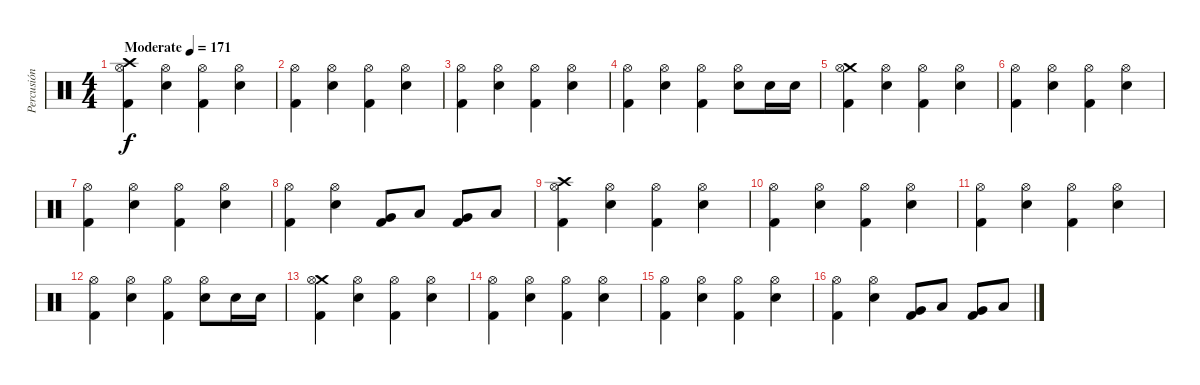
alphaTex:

\track ("Percusión" "Percusión") {instrument percussion}
\staff {score}
\articulation defaults
\ts (4 4)
\tempo (171 "Moderate")
\clef neutral
\ks c
("Crash high (hit)" "Hi-Hat (open)" "Kick (hit) 2").4{dy f} ("Hi-Hat (open)" "Electric Snare (hit)").4 ("Hi-Hat (open)" "Kick (hit) 2").4 ("Hi-Hat (open)" "Electric Snare (hit)").4 |
("Hi-Hat (open)" "Kick (hit) 2").4 ("Hi-Hat (open)" "Electric Snare (hit)").4 ("Hi-Hat (open)" "Kick (hit) 2").4 ("Hi-Hat (open)" "Electric Snare (hit)").4 |
("Hi-Hat (open)" "Kick (hit) 2").4 ("Hi-Hat (open)" "Electric Snare (hit)").4 ("Hi-Hat (open)" "Kick (hit) 2").4 ("Hi-Hat (open)" "Electric Snare (hit)").4 |
("Hi-Hat (open)" "Kick (hit) 2").4 ("Hi-Hat (open)" "Electric Snare (hit)").4 ("Hi-Hat (open)" "Kick (hit) 2").4 ("Hi-Hat (open)" "Electric Snare (hit)").8 "Electric Snare (hit)".16 "Electric Snare (hit)".16 |
("Crash medium (hit)" "Hi-Hat (open)" "Kick (hit) 2").4 ("Hi-Hat (open)" "Electric Snare (hit)").4 ("Hi-Hat (open)" "Kick (hit) 2").4 ("Hi-Hat (open)" "Electric Snare (hit)").4 |
("Hi-Hat (open)" "Kick (hit) 2").4 ("Hi-Hat (open)" "Electric Snare (hit)").4 ("Hi-Hat (open)" "Kick (hit) 2").4 ("Hi-Hat (open)" "Electric Snare (hit)").4 |
("Hi-Hat (open)" "Kick (hit) 2").4 ("Hi-Hat (open)" "Electric Snare (hit)").4 ("Hi-Hat (open)" "Kick (hit) 2").4 ("Hi-Hat (open)" "Electric Snare (hit)").4 |
("Hi-Hat (open)" "Kick (hit) 2").4 ("Hi-Hat (open)" "Electric Snare (hit)").4 ("Very Low Tom (hit)" "Kick (hit) 2").8 "Low Tom (hit)".8 ("Very Low Tom (hit)" "Kick (hit) 2").8 "Low Tom (hit)".8 |
("Crash high (hit)" "Hi-Hat (open)" "Kick (hit) 2").4 ("Hi-Hat (open)" "Electric Snare (hit)").4 ("Hi-Hat (open)" "Kick (hit) 2").4 ("Hi-Hat (open)" "Electric Snare (hit)").4 |
("Hi-Hat (open)" "Kick (hit) 2").4 ("Hi-Hat (open)" "Electric Snare (hit)").4 ("Hi-Hat (open)" "Kick (hit) 2").4 ("Hi-Hat (open)" "Electric Snare (hit)").4 |
("Hi-Hat (open)" "Kick (hit) 2").4 ("Hi-Hat (open)" "Electric Snare (hit)").4 ("Hi-Hat (open)" "Kick (hit) 2").4 ("Hi-Hat (open)" "Electric Snare (hit)").4 |
("Hi-Hat (open)" "Kick (hit) 2").4 ("Hi-Hat (open)" "Electric Snare (hit)").4 ("Hi-Hat (open)" "Kick (hit) 2").4 ("Hi-Hat (open)" "Electric Snare (hit)").8 "Electric Snare (hit)".16 "Electric Snare (hit)".16 |
("Crash medium (hit)" "Hi-Hat (open)" "Kick (hit) 2").4 ("Hi-Hat (open)" "Electric Snare (hit)").4 ("Hi-Hat (open)" "Kick (hit) 2").4 ("Hi-Hat (open)" "Electric Snare (hit)").4 |
("Hi-Hat (open)" "Kick (hit) 2").4 ("Hi-Hat (open)" "Electric Snare (hit)").4 ("Hi-Hat (open)" "Kick (hit) 2").4 ("Hi-Hat (open)" "Electric Snare (hit)").4 |
("Hi-Hat (open)" "Kick (hit) 2").4 ("Hi-Hat (open)" "Electric Snare (hit)").4 ("Hi-Hat (open)" "Kick (hit) 2").4 ("Hi-Hat (open)" "Electric Snare (hit)").4 |
("Hi-Hat (open)" "Kick (hit) 2").4 ("Hi-Hat (open)" "Electric Snare (hit)").4 ("Very Low Tom (hit)" "Kick (hit) 2").8 "Low Tom (hit)".8 ("Very Low Tom (hit)" "Kick (hit) 2").8 "Low Tom (hit)".8
